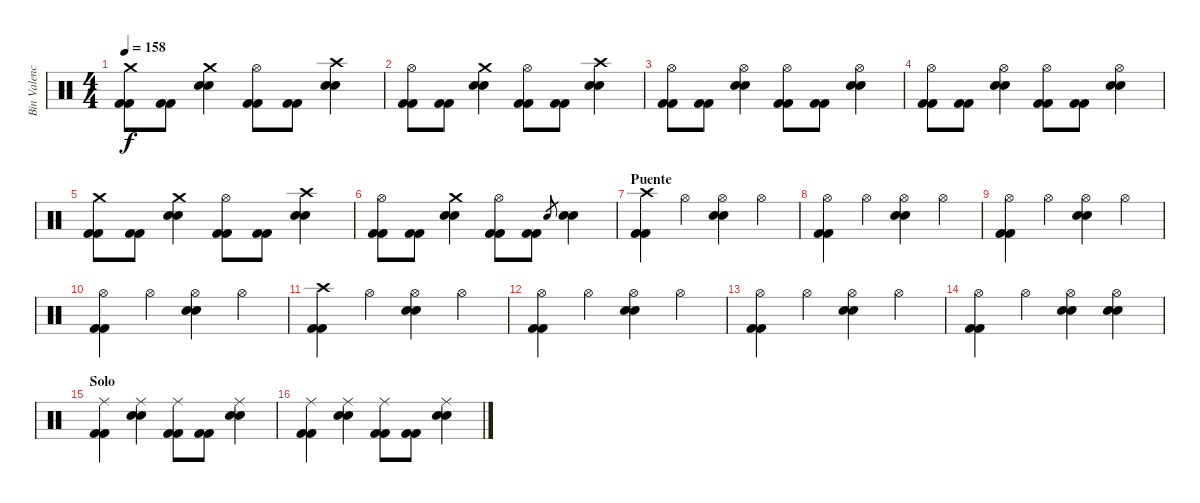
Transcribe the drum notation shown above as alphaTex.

\track ("Bin Valencia (bateria)" "Bin Valenc") {instrument percussion}
\staff {score}
\articulation defaults
\ts (4 4)
\tempo 158
\clef neutral
\ks c
("Crash medium (hit)" "Kick (hit) 2" "Kick (hit) 2").8{dy f} ("Kick (hit) 2" "Kick (hit) 2").8 ("Crash medium (hit)" "Snare (hit) 2" "Snare (hit) 2").4 ("Hi-Hat (open)" "Kick (hit) 2" "Kick (hit) 2").8 ("Kick (hit) 2" "Kick (hit) 2").8 ("Crash high (hit)" "Snare (hit) 2" "Snare (hit) 2").4 |
("Hi-Hat (open)" "Kick (hit) 2" "Kick (hit) 2").8 ("Kick (hit) 2" "Kick (hit) 2").8 ("Crash medium (hit)" "Snare (hit) 2" "Snare (hit) 2").4 ("Hi-Hat (open)" "Kick (hit) 2" "Kick (hit) 2").8 ("Kick (hit) 2" "Kick (hit) 2").8 ("Crash high (hit)" "Snare (hit) 2" "Snare (hit) 2").4 |
("Hi-Hat (open)" "Kick (hit) 2" "Kick (hit) 2").8 ("Kick (hit) 2" "Kick (hit) 2").8 ("Hi-Hat (open)" "Snare (hit) 2" "Snare (hit) 2").4 ("Hi-Hat (open)" "Kick (hit) 2" "Kick (hit) 2").8 ("Kick (hit) 2" "Kick (hit) 2").8 ("Hi-Hat (open)" "Snare (hit) 2" "Snare (hit) 2").4 |
("Hi-Hat (open)" "Kick (hit) 2" "Kick (hit) 2").8 ("Kick (hit) 2" "Kick (hit) 2").8 ("Hi-Hat (open)" "Snare (hit) 2" "Snare (hit) 2").4 ("Hi-Hat (open)" "Kick (hit) 2" "Kick (hit) 2").8 ("Kick (hit) 2" "Kick (hit) 2").8 ("Hi-Hat (open)" "Snare (hit) 2" "Snare (hit) 2").4 |
("Crash medium (hit)" "Kick (hit) 2" "Kick (hit) 2").8 ("Kick (hit) 2" "Kick (hit) 2").8 ("Crash medium (hit)" "Snare (hit) 2" "Snare (hit) 2").4 ("Hi-Hat (open)" "Kick (hit) 2" "Kick (hit) 2").8 ("Kick (hit) 2" "Kick (hit) 2").8 ("Crash high (hit)" "Snare (hit) 2" "Snare (hit) 2").4 |
("Hi-Hat (open)" "Kick (hit) 2" "Kick (hit) 2").8 ("Kick (hit) 2" "Kick (hit) 2").8 ("Crash medium (hit)" "Snare (hit) 2" "Snare (hit) 2").4 ("Hi-Hat (open)" "Kick (hit) 2" "Kick (hit) 2").8 ("Kick (hit) 2" "Kick (hit) 2").8 "Electric Snare (hit)".8{gr} ("Electric Snare (hit)" "Snare (hit) 2").4 |
\section ("" "Puente")
("Crash high (hit)" "Kick (hit) 2" "Kick (hit) 2").4 "Hi-Hat (open)".4 ("Hi-Hat (open)" "Snare (hit) 2" "Snare (hit) 2").4 "Hi-Hat (open)".4 |
("Hi-Hat (open)" "Kick (hit) 2" "Kick (hit) 2").4 "Hi-Hat (open)".4 ("Hi-Hat (open)" "Snare (hit) 2" "Snare (hit) 2").4 "Hi-Hat (open)".4 |
("Hi-Hat (open)" "Kick (hit) 2" "Kick (hit) 2").4 "Hi-Hat (open)".4 ("Hi-Hat (open)" "Snare (hit) 2" "Snare (hit) 2").4 "Hi-Hat (open)".4 |
("Hi-Hat (open)" "Kick (hit) 2" "Kick (hit) 2").4 "Hi-Hat (open)".4 ("Hi-Hat (open)" "Snare (hit) 2" "Snare (hit) 2").4 "Hi-Hat (open)".4 |
("Crash high (hit)" "Kick (hit) 2" "Kick (hit) 2").4 "Hi-Hat (open)".4 ("Hi-Hat (open)" "Snare (hit) 2" "Snare (hit) 2").4 "Hi-Hat (open)".4 |
("Hi-Hat (open)" "Kick (hit) 2" "Kick (hit) 2").4 "Hi-Hat (open)".4 ("Hi-Hat (open)" "Snare (hit) 2" "Snare (hit) 2").4 "Hi-Hat (open)".4 |
("Hi-Hat (open)" "Kick (hit) 2" "Kick (hit) 2").4 "Hi-Hat (open)".4 ("Hi-Hat (open)" "Snare (hit) 2" "Snare (hit) 2").4 "Hi-Hat (open)".4 |
("Hi-Hat (open)" "Kick (hit) 2" "Kick (hit) 2").4 "Hi-Hat (open)".4 ("Hi-Hat (open)" "Electric Snare (hit)" "Electric Snare (hit)").4 ("Hi-Hat (open)" "Electric Snare (hit)" "Electric Snare (hit)").4 |
\section ("" "Solo")
("Ride (middle)" "Kick (hit) 2" "Kick (hit) 2").4 ("Ride (middle)" "Snare (hit) 2" "Snare (hit) 2").4 ("Ride (middle)" "Kick (hit) 2" "Kick (hit) 2").8 ("Kick (hit) 2" "Kick (hit) 2").8 ("Ride (middle)" "Snare (hit) 2" "Snare (hit) 2").4 |
("Ride (middle)" "Kick (hit) 2" "Kick (hit) 2").4 ("Ride (middle)" "Snare (hit) 2" "Snare (hit) 2").4 ("Ride (middle)" "Kick (hit) 2" "Kick (hit) 2").8 ("Kick (hit) 2" "Kick (hit) 2").8 ("Ride (middle)" "Snare (hit) 2" "Snare (hit) 2").4
